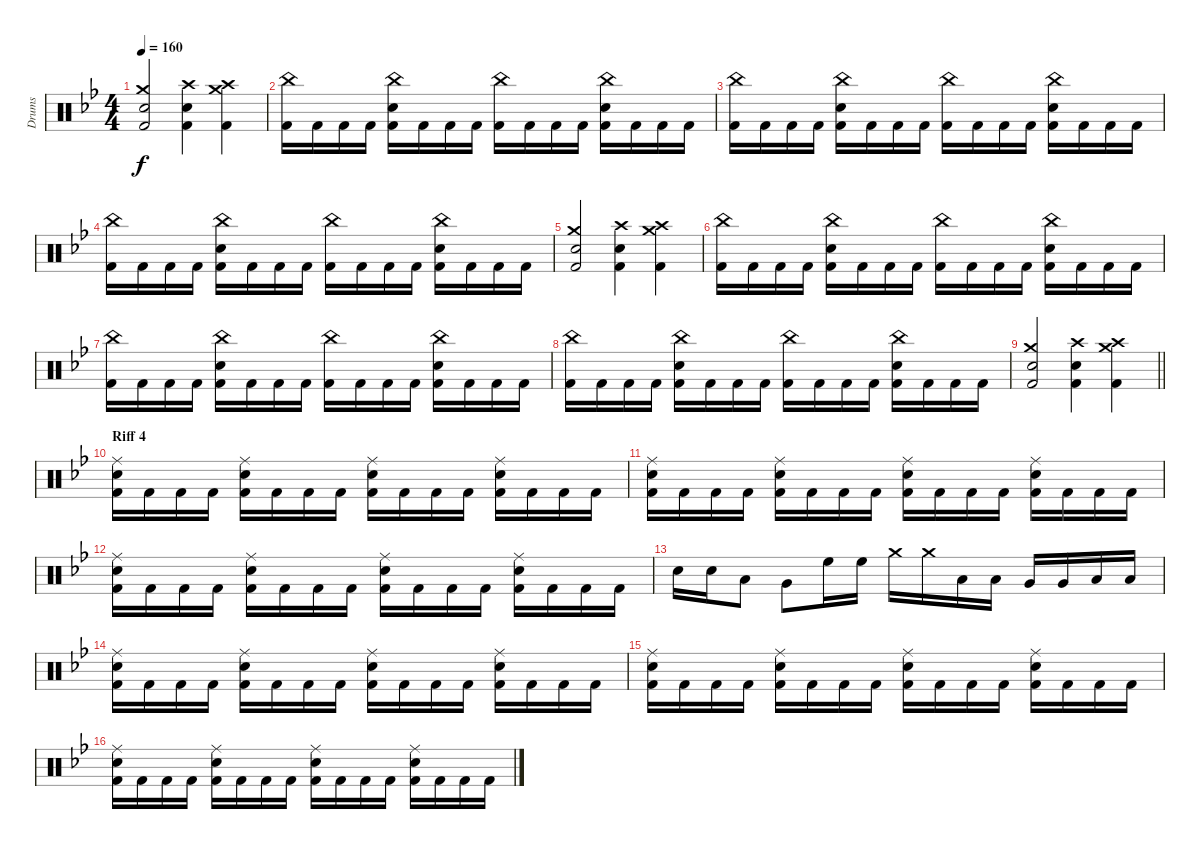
\track ("Drums" "Drums") {instrument percussion}
\staff {score}
\articulation defaults
\ts (4 4)
\tempo 160
\clef neutral
\ks bb
("Kick (hit) 2" "Crash medium (hit)" "Electric Snare (hit)").2{dy f} ("Kick (hit) 2" "Crash high (hit)" "Electric Snare (hit)").4 ("Kick (hit) 2" "Crash medium (hit)" "Crash high (hit)").4 |
("China (hit)" "Kick (hit) 2").16 "Kick (hit) 2".16 "Kick (hit) 2".16 "Kick (hit) 2".16 ("China (hit)" "Electric Snare (hit)" "Kick (hit) 2").16 "Kick (hit) 2".16 "Kick (hit) 2".16 "Kick (hit) 2".16 ("China (hit)" "Kick (hit) 2").16 "Kick (hit) 2".16 "Kick (hit) 2".16 "Kick (hit) 2".16 ("China (hit)" "Electric Snare (hit)" "Kick (hit) 2").16 "Kick (hit) 2".16 "Kick (hit) 2".16 "Kick (hit) 2".16 |
("China (hit)" "Kick (hit) 2").16 "Kick (hit) 2".16 "Kick (hit) 2".16 "Kick (hit) 2".16 ("China (hit)" "Electric Snare (hit)" "Kick (hit) 2").16 "Kick (hit) 2".16 "Kick (hit) 2".16 "Kick (hit) 2".16 ("China (hit)" "Kick (hit) 2").16 "Kick (hit) 2".16 "Kick (hit) 2".16 "Kick (hit) 2".16 ("China (hit)" "Electric Snare (hit)" "Kick (hit) 2").16 "Kick (hit) 2".16 "Kick (hit) 2".16 "Kick (hit) 2".16 |
("China (hit)" "Kick (hit) 2").16 "Kick (hit) 2".16 "Kick (hit) 2".16 "Kick (hit) 2".16 ("China (hit)" "Electric Snare (hit)" "Kick (hit) 2").16 "Kick (hit) 2".16 "Kick (hit) 2".16 "Kick (hit) 2".16 ("China (hit)" "Kick (hit) 2").16 "Kick (hit) 2".16 "Kick (hit) 2".16 "Kick (hit) 2".16 ("China (hit)" "Electric Snare (hit)" "Kick (hit) 2").16 "Kick (hit) 2".16 "Kick (hit) 2".16 "Kick (hit) 2".16 |
("Kick (hit) 2" "Crash medium (hit)" "Electric Snare (hit)").2 ("Kick (hit) 2" "Crash high (hit)" "Electric Snare (hit)").4 ("Kick (hit) 2" "Crash medium (hit)" "Crash high (hit)").4 |
("China (hit)" "Kick (hit) 2").16 "Kick (hit) 2".16 "Kick (hit) 2".16 "Kick (hit) 2".16 ("China (hit)" "Electric Snare (hit)" "Kick (hit) 2").16 "Kick (hit) 2".16 "Kick (hit) 2".16 "Kick (hit) 2".16 ("China (hit)" "Kick (hit) 2").16 "Kick (hit) 2".16 "Kick (hit) 2".16 "Kick (hit) 2".16 ("China (hit)" "Electric Snare (hit)" "Kick (hit) 2").16 "Kick (hit) 2".16 "Kick (hit) 2".16 "Kick (hit) 2".16 |
("China (hit)" "Kick (hit) 2").16 "Kick (hit) 2".16 "Kick (hit) 2".16 "Kick (hit) 2".16 ("China (hit)" "Electric Snare (hit)" "Kick (hit) 2").16 "Kick (hit) 2".16 "Kick (hit) 2".16 "Kick (hit) 2".16 ("China (hit)" "Kick (hit) 2").16 "Kick (hit) 2".16 "Kick (hit) 2".16 "Kick (hit) 2".16 ("China (hit)" "Electric Snare (hit)" "Kick (hit) 2").16 "Kick (hit) 2".16 "Kick (hit) 2".16 "Kick (hit) 2".16 |
("China (hit)" "Kick (hit) 2").16 "Kick (hit) 2".16 "Kick (hit) 2".16 "Kick (hit) 2".16 ("China (hit)" "Electric Snare (hit)" "Kick (hit) 2").16 "Kick (hit) 2".16 "Kick (hit) 2".16 "Kick (hit) 2".16 ("China (hit)" "Kick (hit) 2").16 "Kick (hit) 2".16 "Kick (hit) 2".16 "Kick (hit) 2".16 ("China (hit)" "Electric Snare (hit)" "Kick (hit) 2").16 "Kick (hit) 2".16 "Kick (hit) 2".16 "Kick (hit) 2".16 |
\barLineRight lightlight
("Kick (hit) 2" "Crash medium (hit)" "Electric Snare (hit)").2 ("Kick (hit) 2" "Crash high (hit)" "Electric Snare (hit)").4 ("Kick (hit) 2" "Crash medium (hit)" "Crash high (hit)").4 |
\section ("" "Riff 4")
("Ride (middle)" "Electric Snare (hit)" "Kick (hit) 2").16 "Kick (hit) 2".16 "Kick (hit) 2".16 "Kick (hit) 2".16 ("Ride (middle)" "Electric Snare (hit)" "Kick (hit) 2").16 "Kick (hit) 2".16 "Kick (hit) 2".16 "Kick (hit) 2".16 ("Ride (middle)" "Electric Snare (hit)" "Kick (hit) 2").16 "Kick (hit) 2".16 "Kick (hit) 2".16 "Kick (hit) 2".16 ("Ride (middle)" "Electric Snare (hit)" "Kick (hit) 2").16 "Kick (hit) 2".16 "Kick (hit) 2".16 "Kick (hit) 2".16 |
("Ride (middle)" "Electric Snare (hit)" "Kick (hit) 2").16 "Kick (hit) 2".16 "Kick (hit) 2".16 "Kick (hit) 2".16 ("Ride (middle)" "Electric Snare (hit)" "Kick (hit) 2").16 "Kick (hit) 2".16 "Kick (hit) 2".16 "Kick (hit) 2".16 ("Ride (middle)" "Electric Snare (hit)" "Kick (hit) 2").16 "Kick (hit) 2".16 "Kick (hit) 2".16 "Kick (hit) 2".16 ("Ride (middle)" "Electric Snare (hit)" "Kick (hit) 2").16 "Kick (hit) 2".16 "Kick (hit) 2".16 "Kick (hit) 2".16 |
("Ride (middle)" "Electric Snare (hit)" "Kick (hit) 2").16 "Kick (hit) 2".16 "Kick (hit) 2".16 "Kick (hit) 2".16 ("Ride (middle)" "Electric Snare (hit)" "Kick (hit) 2").16 "Kick (hit) 2".16 "Kick (hit) 2".16 "Kick (hit) 2".16 ("Ride (middle)" "Electric Snare (hit)" "Kick (hit) 2").16 "Kick (hit) 2".16 "Kick (hit) 2".16 "Kick (hit) 2".16 ("Ride (middle)" "Electric Snare (hit)" "Kick (hit) 2").16 "Kick (hit) 2".16 "Kick (hit) 2".16 "Kick (hit) 2".16 |
"Electric Snare (hit)".16 "Electric Snare (hit)".16 "Low Tom (hit)".8 "Very Low Tom (hit)".8 "High Floor Tom (hit)".16 "High Floor Tom (hit)".16 "Crash medium (hit)".16 "Crash medium (hit)".16 "Low Tom (hit)".16 "Low Tom (hit)".16 "Very Low Tom (hit)".16 "Very Low Tom (hit)".16 "Low Floor Tom (hit)".16 "Low Floor Tom (hit)".16 |
("Ride (middle)" "Electric Snare (hit)" "Kick (hit) 2").16 "Kick (hit) 2".16 "Kick (hit) 2".16 "Kick (hit) 2".16 ("Ride (middle)" "Electric Snare (hit)" "Kick (hit) 2").16 "Kick (hit) 2".16 "Kick (hit) 2".16 "Kick (hit) 2".16 ("Ride (middle)" "Electric Snare (hit)" "Kick (hit) 2").16 "Kick (hit) 2".16 "Kick (hit) 2".16 "Kick (hit) 2".16 ("Ride (middle)" "Electric Snare (hit)" "Kick (hit) 2").16 "Kick (hit) 2".16 "Kick (hit) 2".16 "Kick (hit) 2".16 |
("Ride (middle)" "Electric Snare (hit)" "Kick (hit) 2").16 "Kick (hit) 2".16 "Kick (hit) 2".16 "Kick (hit) 2".16 ("Ride (middle)" "Electric Snare (hit)" "Kick (hit) 2").16 "Kick (hit) 2".16 "Kick (hit) 2".16 "Kick (hit) 2".16 ("Ride (middle)" "Electric Snare (hit)" "Kick (hit) 2").16 "Kick (hit) 2".16 "Kick (hit) 2".16 "Kick (hit) 2".16 ("Ride (middle)" "Electric Snare (hit)" "Kick (hit) 2").16 "Kick (hit) 2".16 "Kick (hit) 2".16 "Kick (hit) 2".16 |
("Ride (middle)" "Electric Snare (hit)" "Kick (hit) 2").16 "Kick (hit) 2".16 "Kick (hit) 2".16 "Kick (hit) 2".16 ("Ride (middle)" "Electric Snare (hit)" "Kick (hit) 2").16 "Kick (hit) 2".16 "Kick (hit) 2".16 "Kick (hit) 2".16 ("Ride (middle)" "Electric Snare (hit)" "Kick (hit) 2").16 "Kick (hit) 2".16 "Kick (hit) 2".16 "Kick (hit) 2".16 ("Ride (middle)" "Electric Snare (hit)" "Kick (hit) 2").16 "Kick (hit) 2".16 "Kick (hit) 2".16 "Kick (hit) 2".16
